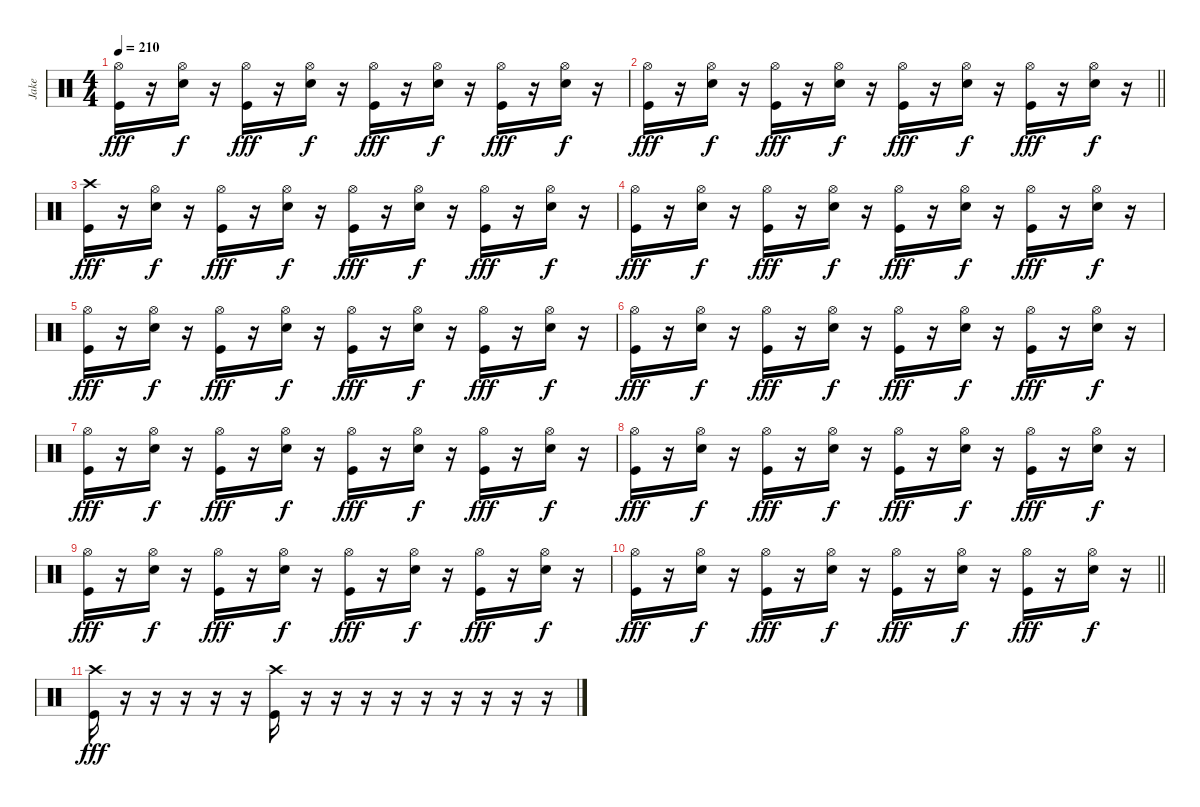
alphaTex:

\track ("Jake" "Jake") {instrument percussion}
\staff {score}
\articulation defaults
\ts (4 4)
\tempo 210
\clef neutral
\ks c
("Hi-Hat (open)" "Kick (hit)").16{dy fff} r.16 ("Hi-Hat (open)" "Electric Snare (hit)").16{dy f} r.16 ("Hi-Hat (open)" "Kick (hit)").16{dy fff} r.16 ("Hi-Hat (open)" "Electric Snare (hit)").16{dy f} r.16 ("Hi-Hat (open)" "Kick (hit)").16{dy fff} r.16 ("Hi-Hat (open)" "Electric Snare (hit)").16{dy f} r.16 ("Hi-Hat (open)" "Kick (hit)").16{dy fff} r.16 ("Hi-Hat (open)" "Electric Snare (hit)").16{dy f} r.16 |
\barLineRight lightlight
("Hi-Hat (open)" "Kick (hit)").16{dy fff} r.16 ("Hi-Hat (open)" "Electric Snare (hit)").16{dy f} r.16 ("Hi-Hat (open)" "Kick (hit)").16{dy fff} r.16 ("Hi-Hat (open)" "Electric Snare (hit)").16{dy f} r.16 ("Hi-Hat (open)" "Kick (hit)").16{dy fff} r.16 ("Hi-Hat (open)" "Electric Snare (hit)").16{dy f} r.16 ("Hi-Hat (open)" "Kick (hit)").16{dy fff} r.16 ("Hi-Hat (open)" "Electric Snare (hit)").16{dy f} r.16 |
("Crash high (hit)" "Kick (hit)").16{dy fff} r.16 ("Hi-Hat (open)" "Electric Snare (hit)").16{dy f} r.16 ("Hi-Hat (open)" "Kick (hit)").16{dy fff} r.16 ("Hi-Hat (open)" "Electric Snare (hit)").16{dy f} r.16 ("Hi-Hat (open)" "Kick (hit)").16{dy fff} r.16 ("Hi-Hat (open)" "Electric Snare (hit)").16{dy f} r.16 ("Hi-Hat (open)" "Kick (hit)").16{dy fff} r.16 ("Hi-Hat (open)" "Electric Snare (hit)").16{dy f} r.16 |
("Hi-Hat (open)" "Kick (hit)").16{dy fff} r.16 ("Hi-Hat (open)" "Electric Snare (hit)").16{dy f} r.16 ("Hi-Hat (open)" "Kick (hit)").16{dy fff} r.16 ("Hi-Hat (open)" "Electric Snare (hit)").16{dy f} r.16 ("Hi-Hat (open)" "Kick (hit)").16{dy fff} r.16 ("Hi-Hat (open)" "Electric Snare (hit)").16{dy f} r.16 ("Hi-Hat (open)" "Kick (hit)").16{dy fff} r.16 ("Hi-Hat (open)" "Electric Snare (hit)").16{dy f} r.16 |
("Hi-Hat (open)" "Kick (hit)").16{dy fff} r.16 ("Hi-Hat (open)" "Electric Snare (hit)").16{dy f} r.16 ("Hi-Hat (open)" "Kick (hit)").16{dy fff} r.16 ("Hi-Hat (open)" "Electric Snare (hit)").16{dy f} r.16 ("Hi-Hat (open)" "Kick (hit)").16{dy fff} r.16 ("Hi-Hat (open)" "Electric Snare (hit)").16{dy f} r.16 ("Hi-Hat (open)" "Kick (hit)").16{dy fff} r.16 ("Hi-Hat (open)" "Electric Snare (hit)").16{dy f} r.16 |
("Hi-Hat (open)" "Kick (hit)").16{dy fff} r.16 ("Hi-Hat (open)" "Electric Snare (hit)").16{dy f} r.16 ("Hi-Hat (open)" "Kick (hit)").16{dy fff} r.16 ("Hi-Hat (open)" "Electric Snare (hit)").16{dy f} r.16 ("Hi-Hat (open)" "Kick (hit)").16{dy fff} r.16 ("Hi-Hat (open)" "Electric Snare (hit)").16{dy f} r.16 ("Hi-Hat (open)" "Kick (hit)").16{dy fff} r.16 ("Hi-Hat (open)" "Electric Snare (hit)").16{dy f} r.16 |
("Hi-Hat (open)" "Kick (hit)").16{dy fff} r.16 ("Hi-Hat (open)" "Electric Snare (hit)").16{dy f} r.16 ("Hi-Hat (open)" "Kick (hit)").16{dy fff} r.16 ("Hi-Hat (open)" "Electric Snare (hit)").16{dy f} r.16 ("Hi-Hat (open)" "Kick (hit)").16{dy fff} r.16 ("Hi-Hat (open)" "Electric Snare (hit)").16{dy f} r.16 ("Hi-Hat (open)" "Kick (hit)").16{dy fff} r.16 ("Hi-Hat (open)" "Electric Snare (hit)").16{dy f} r.16 |
("Hi-Hat (open)" "Kick (hit)").16{dy fff} r.16 ("Hi-Hat (open)" "Electric Snare (hit)").16{dy f} r.16 ("Hi-Hat (open)" "Kick (hit)").16{dy fff} r.16 ("Hi-Hat (open)" "Electric Snare (hit)").16{dy f} r.16 ("Hi-Hat (open)" "Kick (hit)").16{dy fff} r.16 ("Hi-Hat (open)" "Electric Snare (hit)").16{dy f} r.16 ("Hi-Hat (open)" "Kick (hit)").16{dy fff} r.16 ("Hi-Hat (open)" "Electric Snare (hit)").16{dy f} r.16 |
("Hi-Hat (open)" "Kick (hit)").16{dy fff} r.16 ("Hi-Hat (open)" "Electric Snare (hit)").16{dy f} r.16 ("Hi-Hat (open)" "Kick (hit)").16{dy fff} r.16 ("Hi-Hat (open)" "Electric Snare (hit)").16{dy f} r.16 ("Hi-Hat (open)" "Kick (hit)").16{dy fff} r.16 ("Hi-Hat (open)" "Electric Snare (hit)").16{dy f} r.16 ("Hi-Hat (open)" "Kick (hit)").16{dy fff} r.16 ("Hi-Hat (open)" "Electric Snare (hit)").16{dy f} r.16 |
\barLineRight lightlight
("Hi-Hat (open)" "Kick (hit)").16{dy fff} r.16 ("Hi-Hat (open)" "Electric Snare (hit)").16{dy f} r.16 ("Hi-Hat (open)" "Kick (hit)").16{dy fff} r.16 ("Hi-Hat (open)" "Electric Snare (hit)").16{dy f} r.16 ("Hi-Hat (open)" "Kick (hit)").16{dy fff} r.16 ("Hi-Hat (open)" "Electric Snare (hit)").16{dy f} r.16 ("Hi-Hat (open)" "Kick (hit)").16{dy fff} r.16 ("Hi-Hat (open)" "Electric Snare (hit)").16{dy f} r.16 |
("Crash high (hit)" "Kick (hit)").16{dy fff} r.16 r.16 r.16 r.16 r.16 ("Crash high (hit)" "Kick (hit)").16 r.16 r.16 r.16 r.16 r.16 r.16 r.16 r.16 r.16
